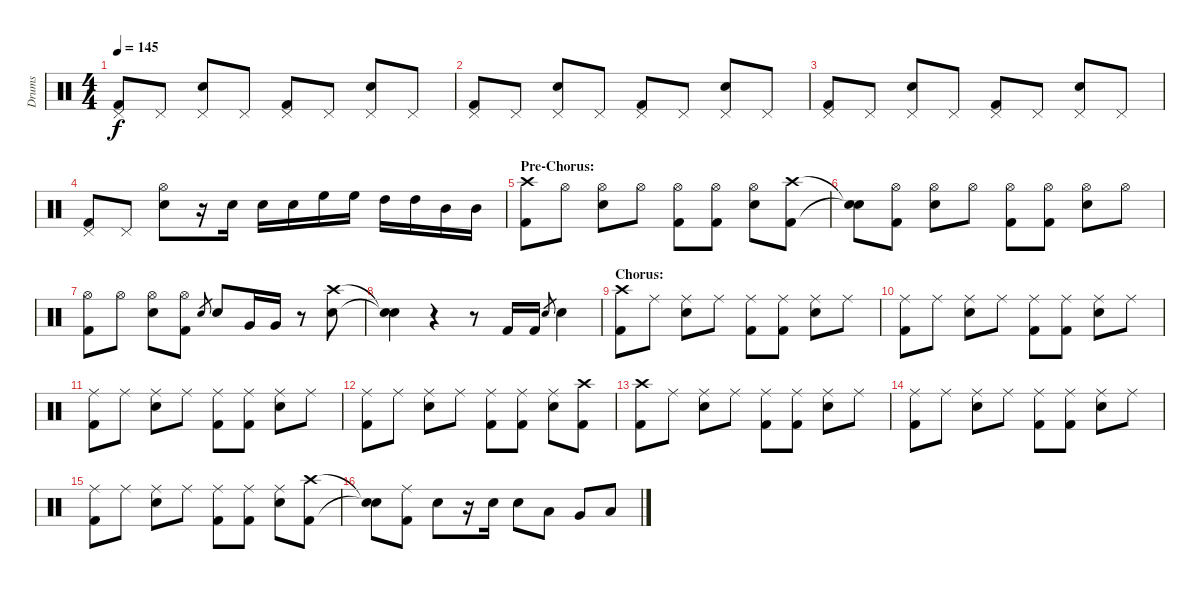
\track ("Drums" "Drums") {instrument percussion}
\staff {score}
\articulation defaults
\ts (4 4)
\tempo 145
\clef neutral
\ks c
("Pedal Hi-Hat (hit)" "Kick (hit) 2").8{dy f} "Pedal Hi-Hat (hit)".8 ("Pedal Hi-Hat (hit)" "Electric Snare (hit)").8 "Pedal Hi-Hat (hit)".8 ("Pedal Hi-Hat (hit)" "Kick (hit) 2").8 "Pedal Hi-Hat (hit)".8 ("Pedal Hi-Hat (hit)" "Electric Snare (hit)").8 "Pedal Hi-Hat (hit)".8 |
("Pedal Hi-Hat (hit)" "Kick (hit) 2").8 "Pedal Hi-Hat (hit)".8 ("Pedal Hi-Hat (hit)" "Electric Snare (hit)").8 "Pedal Hi-Hat (hit)".8 ("Pedal Hi-Hat (hit)" "Kick (hit) 2").8 "Pedal Hi-Hat (hit)".8 ("Pedal Hi-Hat (hit)" "Electric Snare (hit)").8 "Pedal Hi-Hat (hit)".8 |
("Pedal Hi-Hat (hit)" "Kick (hit) 2").8 "Pedal Hi-Hat (hit)".8 ("Pedal Hi-Hat (hit)" "Electric Snare (hit)").8 "Pedal Hi-Hat (hit)".8 ("Pedal Hi-Hat (hit)" "Kick (hit) 2").8 "Pedal Hi-Hat (hit)".8 ("Pedal Hi-Hat (hit)" "Electric Snare (hit)").8 "Pedal Hi-Hat (hit)".8 |
("Pedal Hi-Hat (hit)" "Kick (hit) 2").8 "Pedal Hi-Hat (hit)".8 ("Hi-Hat (open)" "Electric Snare (hit)").8 r.16 "Electric Snare (hit)".16 "Electric Snare (hit)".16 "Electric Snare (hit)".16 "High Floor Tom (hit)".16 "High Floor Tom (hit)".16 "High Tom (hit)".16 "High Tom (hit)".16 "Mid Tom (hit)".16 "Mid Tom (hit)".16 |
\section ("" "Pre-Chorus:")
("Crash high (hit)" "Kick (hit) 2").8 "Hi-Hat (open)".8 ("Hi-Hat (open)" "Electric Snare (hit)").8 "Hi-Hat (open)".8 ("Hi-Hat (open)" "Kick (hit) 2").8 ("Hi-Hat (open)" "Kick (hit) 2").8 ("Hi-Hat (open)" "Electric Snare (hit)").8 ("Crash high (hit)" "Kick (hit) 2").8 |
("Snare (hit)"{t} "Snare (hit)"{t}).8 ("Hi-Hat (open)" "Kick (hit) 2").8 ("Hi-Hat (open)" "Electric Snare (hit)").8 "Hi-Hat (open)".8 ("Hi-Hat (open)" "Kick (hit) 2").8 ("Hi-Hat (open)" "Kick (hit) 2").8 ("Hi-Hat (open)" "Electric Snare (hit)").8 "Hi-Hat (open)".8 |
("Hi-Hat (open)" "Kick (hit) 2").8 "Hi-Hat (open)".8 ("Hi-Hat (open)" "Electric Snare (hit)").8 ("Hi-Hat (open)" "Kick (hit) 2").8 "Electric Snare (hit)".8{gr} "Electric Snare (hit)".8 "Very Low Tom (hit)".16 "Very Low Tom (hit)".16 r.8 ("Crash high (hit)" "Electric Snare (hit)").8 |
("Snare (hit)"{t} "Snare (hit)"{t}).4 r.4 r.8 "Kick (hit) 2".16 "Kick (hit) 2".16 "Electric Snare (hit)".8{gr} "Electric Snare (hit)".4 |
\section ("" "Chorus:")
("Crash high (hit)" "Kick (hit) 2").8 "Ride (middle)".8 ("Ride (middle)" "Electric Snare (hit)").8 "Ride (middle)".8 ("Ride (middle)" "Kick (hit) 2").8 ("Ride (middle)" "Kick (hit) 2").8 ("Ride (middle)" "Electric Snare (hit)").8 "Ride (middle)".8 |
("Ride (middle)" "Kick (hit) 2").8 "Ride (middle)".8 ("Ride (middle)" "Electric Snare (hit)").8 "Ride (middle)".8 ("Ride (middle)" "Kick (hit) 2").8 ("Ride (middle)" "Kick (hit) 2").8 ("Ride (middle)" "Electric Snare (hit)").8 "Ride (middle)".8 |
("Ride (middle)" "Kick (hit) 2").8 "Ride (middle)".8 ("Ride (middle)" "Electric Snare (hit)").8 "Ride (middle)".8 ("Ride (middle)" "Kick (hit) 2").8 ("Ride (middle)" "Kick (hit) 2").8 ("Ride (middle)" "Electric Snare (hit)").8 "Ride (middle)".8 |
("Ride (middle)" "Kick (hit) 2").8 "Ride (middle)".8 ("Ride (middle)" "Electric Snare (hit)").8 "Ride (middle)".8 ("Ride (middle)" "Kick (hit) 2").8 ("Ride (middle)" "Kick (hit) 2").8 ("Ride (middle)" "Electric Snare (hit)").8 ("Crash high (hit)" "Kick (hit) 2").8 |
("Crash high (hit)" "Kick (hit) 2").8 "Ride (middle)".8 ("Ride (middle)" "Electric Snare (hit)").8 "Ride (middle)".8 ("Ride (middle)" "Kick (hit) 2").8 ("Ride (middle)" "Kick (hit) 2").8 ("Ride (middle)" "Electric Snare (hit)").8 "Ride (middle)".8 |
("Ride (middle)" "Kick (hit) 2").8 "Ride (middle)".8 ("Ride (middle)" "Electric Snare (hit)").8 "Ride (middle)".8 ("Ride (middle)" "Kick (hit) 2").8 ("Ride (middle)" "Kick (hit) 2").8 ("Ride (middle)" "Electric Snare (hit)").8 "Ride (middle)".8 |
("Ride (middle)" "Kick (hit) 2").8 "Ride (middle)".8 ("Ride (middle)" "Electric Snare (hit)").8 "Ride (middle)".8 ("Ride (middle)" "Kick (hit) 2").8 ("Ride (middle)" "Kick (hit) 2").8 ("Ride (middle)" "Electric Snare (hit)").8 ("Crash high (hit)" "Kick (hit) 2").8 |
("Snare (hit)"{t} "Snare (hit)"{t}).8 ("Ride (middle)" "Kick (hit) 2").8 "Electric Snare (hit)".8 r.16 "Electric Snare (hit)".16 "Electric Snare (hit)".8 "Low Tom (hit)".8 "Very Low Tom (hit)".8 "Low Floor Tom (hit)".8
